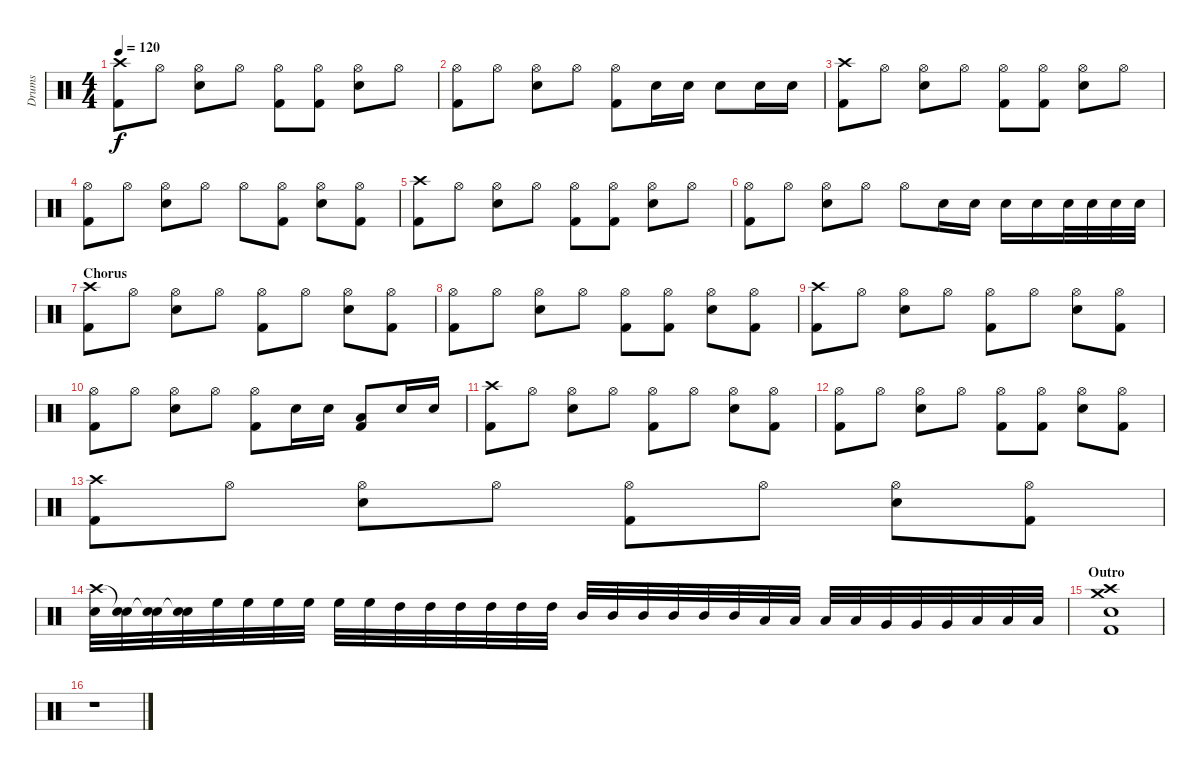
\track ("Drums" "Drums") {instrument percussion}
\staff {score}
\articulation defaults
\ts (4 4)
\tempo 120
\clef neutral
\ks c
("Crash high (hit)" "Kick (hit) 2").8{dy f} "Hi-Hat (open)".8 ("Hi-Hat (open)" "Snare (hit) 2").8 "Hi-Hat (open)".8 ("Hi-Hat (open)" "Kick (hit) 2").8 ("Hi-Hat (open)" "Kick (hit) 2").8 ("Hi-Hat (open)" "Snare (hit) 2").8 "Hi-Hat (open)".8 |
("Hi-Hat (open)" "Kick (hit) 2").8 "Hi-Hat (open)".8 ("Hi-Hat (open)" "Snare (hit) 2").8 "Hi-Hat (open)".8 ("Hi-Hat (open)" "Kick (hit) 2").8 "Snare (hit) 2".16 "Snare (hit) 2".16 "Snare (hit) 2".8 "Snare (hit) 2".16 "Snare (hit) 2".16 |
("Crash high (hit)" "Kick (hit) 2").8 "Hi-Hat (open)".8 ("Hi-Hat (open)" "Snare (hit) 2").8 "Hi-Hat (open)".8 ("Hi-Hat (open)" "Kick (hit) 2").8 ("Hi-Hat (open)" "Kick (hit) 2").8 ("Hi-Hat (open)" "Snare (hit) 2").8 "Hi-Hat (open)".8 |
("Hi-Hat (open)" "Kick (hit) 2").8 "Hi-Hat (open)".8 ("Hi-Hat (open)" "Snare (hit) 2").8 "Hi-Hat (open)".8 "Hi-Hat (open)".8 ("Hi-Hat (open)" "Kick (hit) 2").8 ("Hi-Hat (open)" "Snare (hit) 2").8 ("Hi-Hat (open)" "Kick (hit) 2").8 |
("Crash high (hit)" "Kick (hit) 2").8 "Hi-Hat (open)".8 ("Hi-Hat (open)" "Snare (hit) 2").8 "Hi-Hat (open)".8 ("Hi-Hat (open)" "Kick (hit) 2").8 ("Hi-Hat (open)" "Kick (hit) 2").8 ("Hi-Hat (open)" "Snare (hit) 2").8 "Hi-Hat (open)".8 |
("Hi-Hat (open)" "Kick (hit) 2").8 "Hi-Hat (open)".8 ("Hi-Hat (open)" "Snare (hit) 2").8 "Hi-Hat (open)".8 "Hi-Hat (open)".8 "Snare (hit) 2".16 "Snare (hit) 2".16 "Snare (hit) 2".16 "Snare (hit) 2".16 "Snare (hit) 2".32 "Snare (hit) 2".32 "Snare (hit) 2".32 "Snare (hit) 2".32 |
\section ("" "Chorus")
("Crash high (hit)" "Kick (hit) 2").8 "Hi-Hat (open)".8 ("Hi-Hat (open)" "Snare (hit) 2").8 "Hi-Hat (open)".8 ("Hi-Hat (open)" "Kick (hit) 2").8 "Hi-Hat (open)".8 ("Hi-Hat (open)" "Snare (hit) 2").8 ("Hi-Hat (open)" "Kick (hit) 2").8 |
("Hi-Hat (open)" "Kick (hit) 2").8 "Hi-Hat (open)".8 ("Hi-Hat (open)" "Snare (hit) 2").8 "Hi-Hat (open)".8 ("Hi-Hat (open)" "Kick (hit) 2").8 ("Hi-Hat (open)" "Kick (hit) 2").8 ("Hi-Hat (open)" "Snare (hit) 2").8 ("Hi-Hat (open)" "Kick (hit) 2").8 |
("Crash high (hit)" "Kick (hit) 2").8 "Hi-Hat (open)".8 ("Hi-Hat (open)" "Snare (hit) 2").8 "Hi-Hat (open)".8 ("Hi-Hat (open)" "Kick (hit) 2").8 "Hi-Hat (open)".8 ("Hi-Hat (open)" "Snare (hit) 2").8 ("Hi-Hat (open)" "Kick (hit) 2").8 |
("Hi-Hat (open)" "Kick (hit) 2").8 "Hi-Hat (open)".8 ("Hi-Hat (open)" "Snare (hit) 2").8 "Hi-Hat (open)".8 ("Hi-Hat (open)" "Kick (hit) 2").8 "Snare (hit) 2".16 "Snare (hit) 2".16 ("Low Tom (hit)" "Kick (hit) 2").8 "Snare (hit) 2".16 "Snare (hit) 2".16 |
("Crash high (hit)" "Kick (hit) 2").8 "Hi-Hat (open)".8 ("Hi-Hat (open)" "Snare (hit) 2").8 "Hi-Hat (open)".8 ("Hi-Hat (open)" "Kick (hit) 2").8 "Hi-Hat (open)".8 ("Hi-Hat (open)" "Snare (hit) 2").8 ("Hi-Hat (open)" "Kick (hit) 2").8 |
("Hi-Hat (open)" "Kick (hit) 2").8 "Hi-Hat (open)".8 ("Hi-Hat (open)" "Snare (hit) 2").8 "Hi-Hat (open)".8 ("Hi-Hat (open)" "Kick (hit) 2").8 ("Hi-Hat (open)" "Kick (hit) 2").8 ("Hi-Hat (open)" "Snare (hit) 2").8 ("Hi-Hat (open)" "Kick (hit) 2").8 |
("Crash high (hit)" "Kick (hit) 2").8 "Hi-Hat (open)".8 ("Hi-Hat (open)" "Snare (hit) 2").8 "Hi-Hat (open)".8 ("Hi-Hat (open)" "Kick (hit) 2").8 "Hi-Hat (open)".8 ("Hi-Hat (open)" "Snare (hit) 2").8 ("Hi-Hat (open)" "Kick (hit) 2").8 |
("Crash high (hit)" "Snare (hit) 2").32 ("Snare (hit)"{t} "Snare (hit) 2").32 ("Snare (hit)"{t} "Snare (hit) 2").32 ("Snare (hit)"{t} "Snare (hit) 2").32 "High Floor Tom (hit)".32 "High Floor Tom (hit)".32 "High Floor Tom (hit)".32 "High Floor Tom (hit)".32 "High Floor Tom (hit)".32 "High Floor Tom (hit)".32 "High Tom (hit)".32 "High Tom (hit)".32 "High Tom (hit)".32 "High Tom (hit)".32 "High Tom (hit)".32 "High Tom (hit)".32 "Mid Tom (hit)".32 "Mid Tom (hit)".32 "Mid Tom (hit)".32 "Mid Tom (hit)".32 "Mid Tom (hit)".32 "Mid Tom (hit)".32 "Low Tom (hit)".32 "Low Tom (hit)".32 "Low Tom (hit)".32 "Low Tom (hit)".32 "Very Low Tom (hit)".32 "Very Low Tom (hit)".32 "Very Low Tom (hit)".32 "Low Floor Tom (hit)".32 "Low Floor Tom (hit)".32 "Low Floor Tom (hit)".32 |
\section ("" "Outro")
("Kick (hit) 2" "Crash medium (hit)" "Crash high (hit)" "Snare (hit) 2").1 |
r.1
